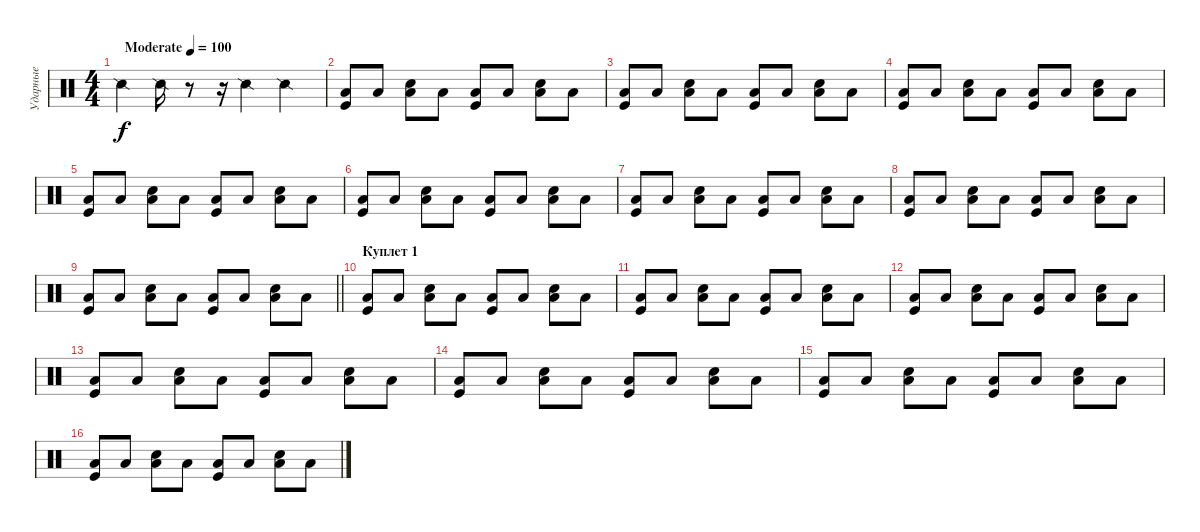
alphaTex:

\track ("Ударные" "Ударные") {instrument percussion}
\staff {score}
\articulation defaults
\ts (4 4)
\tempo (100 "Moderate")
\clef neutral
\ks c "Snare (side stick) 2".4{dy f} "Snare (side stick) 2".16
r.8 r.16 "Snare (side stick) 2".4 "Snare (side stick) 2".4 |
("Low Tom (hit)" "Kick (hit)").8 "Low Tom (hit)".8 ("Snare (hit) 2" "Low Tom (hit)").8 "Low Tom (hit)".8 ("Low Tom (hit)" "Kick (hit)").8 "Low Tom (hit)".8 ("Snare (hit) 2" "Low Tom (hit)").8 "Low Tom (hit)".8 |
("Low Tom (hit)" "Kick (hit)").8 "Low Tom (hit)".8 ("Snare (hit) 2" "Low Tom (hit)").8 "Low Tom (hit)".8 ("Low Tom (hit)" "Kick (hit)").8 "Low Tom (hit)".8 ("Snare (hit) 2" "Low Tom (hit)").8 "Low Tom (hit)".8 |
("Low Tom (hit)" "Kick (hit)").8 "Low Tom (hit)".8 ("Snare (hit) 2" "Low Tom (hit)").8 "Low Tom (hit)".8 ("Low Tom (hit)" "Kick (hit)").8 "Low Tom (hit)".8 ("Snare (hit) 2" "Low Tom (hit)").8 "Low Tom (hit)".8 |
("Low Tom (hit)" "Kick (hit)").8 "Low Tom (hit)".8 ("Snare (hit) 2" "Low Tom (hit)").8 "Low Tom (hit)".8 ("Low Tom (hit)" "Kick (hit)").8 "Low Tom (hit)".8 ("Snare (hit) 2" "Low Tom (hit)").8 "Low Tom (hit)".8 |
("Low Tom (hit)" "Kick (hit)").8 "Low Tom (hit)".8 ("Snare (hit) 2" "Low Tom (hit)").8 "Low Tom (hit)".8 ("Low Tom (hit)" "Kick (hit)").8 "Low Tom (hit)".8 ("Snare (hit) 2" "Low Tom (hit)").8 "Low Tom (hit)".8 |
("Low Tom (hit)" "Kick (hit)").8 "Low Tom (hit)".8 ("Snare (hit) 2" "Low Tom (hit)").8 "Low Tom (hit)".8 ("Low Tom (hit)" "Kick (hit)").8 "Low Tom (hit)".8 ("Snare (hit) 2" "Low Tom (hit)").8 "Low Tom (hit)".8 |
("Low Tom (hit)" "Kick (hit)").8 "Low Tom (hit)".8 ("Snare (hit) 2" "Low Tom (hit)").8 "Low Tom (hit)".8 ("Low Tom (hit)" "Kick (hit)").8 "Low Tom (hit)".8 ("Snare (hit) 2" "Low Tom (hit)").8 "Low Tom (hit)".8 |
\barLineRight lightlight
("Low Tom (hit)" "Kick (hit)").8 "Low Tom (hit)".8 ("Snare (hit) 2" "Low Tom (hit)").8 "Low Tom (hit)".8 ("Low Tom (hit)" "Kick (hit)").8 "Low Tom (hit)".8 ("Snare (hit) 2" "Low Tom (hit)").8 "Low Tom (hit)".8 |
\section ("" "Куплет 1")
("Low Tom (hit)" "Kick (hit)").8 "Low Tom (hit)".8 ("Snare (hit) 2" "Low Tom (hit)").8 "Low Tom (hit)".8 ("Low Tom (hit)" "Kick (hit)").8 "Low Tom (hit)".8 ("Snare (hit) 2" "Low Tom (hit)").8 "Low Tom (hit)".8 |
("Low Tom (hit)" "Kick (hit)").8 "Low Tom (hit)".8 ("Snare (hit) 2" "Low Tom (hit)").8 "Low Tom (hit)".8 ("Low Tom (hit)" "Kick (hit)").8 "Low Tom (hit)".8 ("Snare (hit) 2" "Low Tom (hit)").8 "Low Tom (hit)".8 |
("Low Tom (hit)" "Kick (hit)").8 "Low Tom (hit)".8 ("Snare (hit) 2" "Low Tom (hit)").8 "Low Tom (hit)".8 ("Low Tom (hit)" "Kick (hit)").8 "Low Tom (hit)".8 ("Snare (hit) 2" "Low Tom (hit)").8 "Low Tom (hit)".8 |
("Low Tom (hit)" "Kick (hit)").8 "Low Tom (hit)".8 ("Snare (hit) 2" "Low Tom (hit)").8 "Low Tom (hit)".8 ("Low Tom (hit)" "Kick (hit)").8 "Low Tom (hit)".8 ("Snare (hit) 2" "Low Tom (hit)").8 "Low Tom (hit)".8 |
("Low Tom (hit)" "Kick (hit)").8 "Low Tom (hit)".8 ("Snare (hit) 2" "Low Tom (hit)").8 "Low Tom (hit)".8 ("Low Tom (hit)" "Kick (hit)").8 "Low Tom (hit)".8 ("Snare (hit) 2" "Low Tom (hit)").8 "Low Tom (hit)".8 |
("Low Tom (hit)" "Kick (hit)").8 "Low Tom (hit)".8 ("Snare (hit) 2" "Low Tom (hit)").8 "Low Tom (hit)".8 ("Low Tom (hit)" "Kick (hit)").8 "Low Tom (hit)".8 ("Snare (hit) 2" "Low Tom (hit)").8 "Low Tom (hit)".8 |
("Low Tom (hit)" "Kick (hit)").8 "Low Tom (hit)".8 ("Snare (hit) 2" "Low Tom (hit)").8 "Low Tom (hit)".8 ("Low Tom (hit)" "Kick (hit)").8 "Low Tom (hit)".8 ("Snare (hit) 2" "Low Tom (hit)").8 "Low Tom (hit)".8
